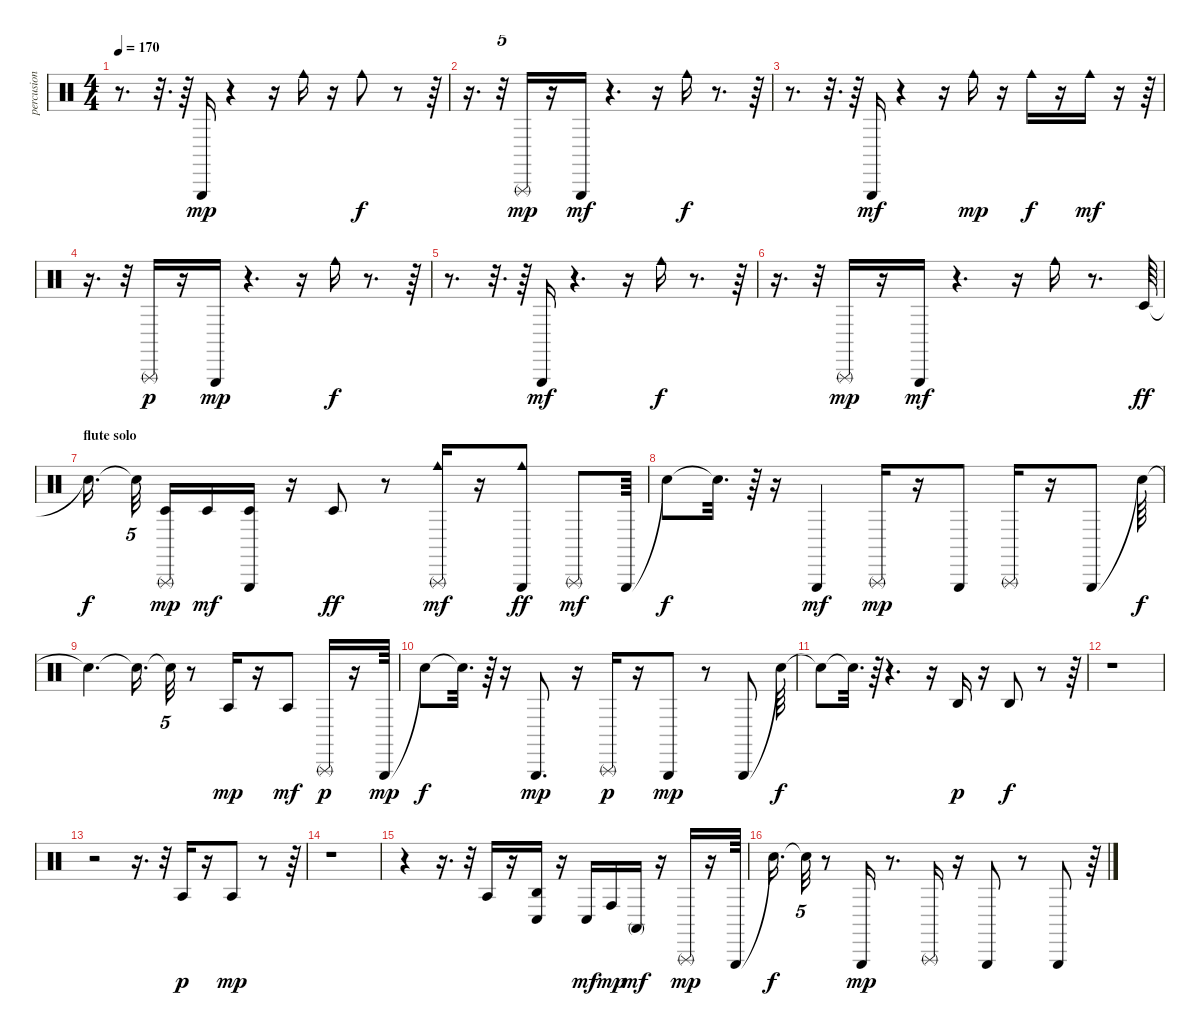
\track ("percusion" "percusion") {instrument percussion}
\staff {score}
\articulation defaults
\ts (4 4)
\tempo 170
\clef neutral
\ks c
r.8{d dy f} r.32{d} r.64 "Triangle (hit)".16{dy mp} r.4 r.16 "Cowbell medium (hit)".16 r.16 "Cowbell medium (hit)".8{dy f} r.8 r.64 |
r.16{d} r.32{tu (5 4)} "Triangle (rnute)".16{dy mp} r.16 "Triangle (hit)".16{dy mf} r.4{d} r.16 "Cowbell medium (hit)".16{dy f} r.8{d} r.64 |
r.8{d} r.32{d} r.64 "Triangle (hit)".16{dy mf} r.4 r.16 "Cowbell medium (hit)".16{dy mp} r.16 "Cowbell medium (hit)".16{dy f} r.16 "Cowbell medium (hit)".16{dy mf} r.16 r.64 |
r.16{d} r.32{tu (5 4)} "Triangle (rnute)".16{dy p} r.16 "Triangle (hit)".16{dy mp} r.4{d} r.16 "Cowbell medium (hit)".16{dy f} r.8{d} r.64 |
r.8{d} r.32{d} r.64 "Triangle (hit)".16{dy mf} r.4{d} r.16 "Cowbell medium (hit)".16{dy f} r.8{d} r.64 |
r.16{d} r.32{tu (5 4)} "Triangle (rnute)".16{dy mp} r.16 "Triangle (hit)".16{dy mf} r.4{d} r.16 "Cowbell medium (hit)".16 r.8{d} "Timbale low (hit)".64{dy ff} |
\section ("" "flute solo")
"Snare (hit)"{t}.16{d dy f} "Snare (hit)"{t}.32{tu (5 4)} ("Triangle (rnute)" "Timbale low (hit)").16{dy mp} "Timbale low (hit)".16{dy mf} ("Triangle (hit)" "Timbale low (hit)").16 r.16 "Timbale low (hit)".8{dy ff} r.8 ("Triangle (rnute)" "Cowbell medium (hit)").16{dy mf} r.16 ("Triangle (hit)" "Cowbell medium (hit)").8{dy ff} "Triangle (rnute)".8{dy mf} "Triangle (hit)".64 |
"Snare (hit)"{t}.8{dy f} "Snare (hit)"{t}.32{d} r.64 r.16 "Triangle (hit)".4{dy mf} "Triangle (rnute)".16{dy mp} r.16 "Triangle (hit)".8 "Triangle (rnute)".16 r.16 "Triangle (hit)".8 "Snare (hit)"{t}.64{dy f} |
"Snare (hit)"{t}.4{d} "Snare (hit)"{t}.16{d} "Snare (hit)"{t}.32{tu (5 4)} r.8 "Agogo tow (hit)".16{dy mp} r.16 "Agogo tow (hit)".8{dy mf} "Triangle (rnute)".16{dy p} r.16 "Triangle (hit)".64{dy mp} |
"Snare (hit)"{t}.8{dy f} "Snare (hit)"{t}.32{d} r.64 r.16 "Triangle (hit)".8{d dy mp} r.16 "Triangle (rnute)".16{dy p} r.16 "Triangle (hit)".8{dy mp} r.8 "Triangle (hit)".8 "Snare (hit)"{t}.64{dy f} |
"Snare (hit)"{t}.8 "Snare (hit)"{t}.32{d} r.64 r.4{d} r.16 "Agogo high (hit)".16{dy p} r.16 "Agogo high (hit)".8{dy f} r.8 r.64 |
r.1 |
r.2 r.16{d} r.32{tu (5 4)} "Agogo tow (hit)".16{dy p} r.16 "Agogo tow (hit)".8{dy mp} r.8 r.64 |
r.1 |
r.4 r.16{d} r.32{tu (5 4)} "Agogo tow (hit)".16 r.16 ("Agogo high (hit)" "Conga low (hit)").16 r.16 "Conga low (hit)".16{dy mf} "Conga high (hit)".16{dy mp} "Conga high (mute)".16{dy mf} r.16 "Triangle (rnute)".16{dy mp} r.16 "Triangle (hit)".64 |
"Snare (hit)"{t}.16{d dy f} "Snare (hit)"{t}.32{tu (5 4)} r.8 "Triangle (hit)".16{dy mp} r.8{d} "Triangle (rnute)".16 r.16 "Triangle (hit)".8 r.8 "Triangle (hit)".8 r.64
